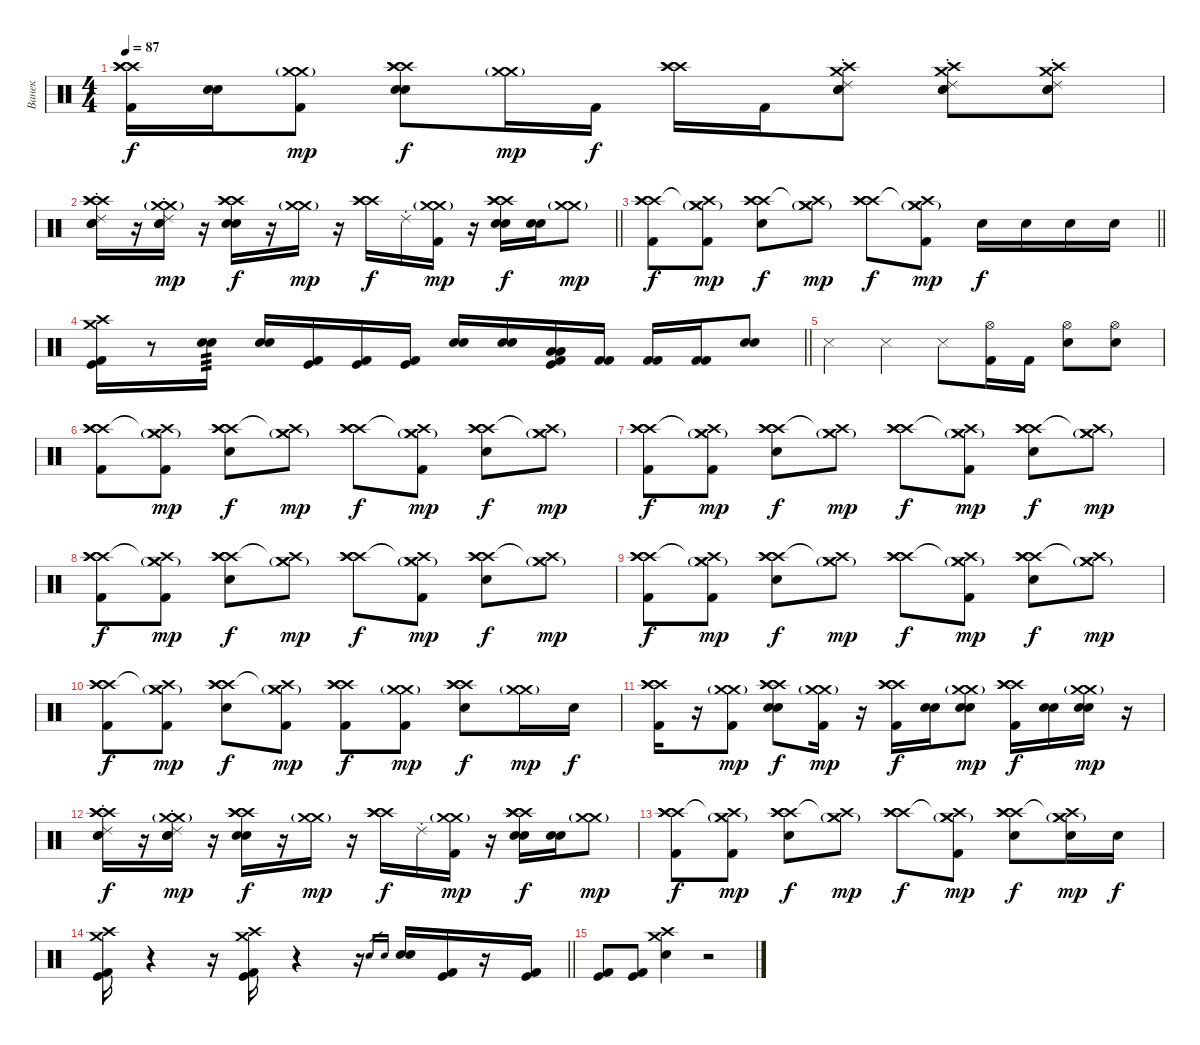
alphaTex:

\track ("Ванек" "Ванек") {instrument percussion}
\staff {score}
\articulation defaults
\ts (4 4)
\tempo 87
\clef neutral
\ks c
("Crash high (hit)" "Crash high (hit)" "Crash high (hit)" "Kick (hit) 2").16{dy f} ("Snare (hit) 2" "Electric Snare (hit)").16 ("Crash medium (hit)"{g} "Crash medium (hit)"{g} "Kick (hit) 2").8{dy mp} ("Crash high (hit)" "Crash high (hit)" "Crash high (hit)" "Snare (hit) 2" "Electric Snare (hit)").8{dy f} ("Crash medium (hit)"{g} "Crash medium (hit)"{g}).16{dy mp} "Kick (hit) 2".16{dy f} ("Crash high (hit)" "Crash high (hit)" "Crash high (hit)").16 "Kick (hit) 2".16 ("Crash high (hit)" "Crash medium (hit)" "Snare (hit) 2" "Electric Snare (hit)" "Ride (choke) 2").8 ("Crash high (hit)" "Crash medium (hit)" "Snare (hit) 2" "Electric Snare (hit)" "Ride (choke) 2").8 ("Crash high (hit)" "Crash medium (hit)" "Snare (hit) 2" "Electric Snare (hit)" "Ride (choke) 2").8 |
\barLineRight lightlight
("Crash high (hit)" "Crash high (hit)" "Crash high (hit)" "Snare (hit) 2" "Electric Snare (hit)" "Ride (choke) 2").16 r.16 ("Crash medium (hit)"{g} "Crash medium (hit)"{g} "Snare (hit) 2" "Electric Snare (hit)" "Ride (choke) 2").16{dy mp} r.16 ("Crash high (hit)" "Crash high (hit)" "Crash high (hit)" "Snare (hit) 2" "Snare (hit) 2").16{dy f} r.16 ("Crash medium (hit)"{g} "Crash medium (hit)"{g}).16{dy mp} r.16 ("Crash high (hit)" "Crash high (hit)" "Crash high (hit)").16{dy f} "Ride (choke) 2".16 ("Crash medium (hit)"{g} "Crash medium (hit)"{g} "Kick (hit) 2").16{dy mp} r.16 ("Crash high (hit)" "Crash high (hit)" "Crash high (hit)" "Snare (hit) 2" "Electric Snare (hit)").16{dy f} ("Snare (hit) 2" "Electric Snare (hit)").16 ("Crash medium (hit)"{g} "Crash medium (hit)"{g}).8{dy mp} |
\barLineRight lightlight
("Crash high (hit)" "Crash high (hit)" "Crash high (hit)" "Kick (hit) 2").8{dy f} ("Crash medium (hit)"{g} "Crash medium (hit)"{g} "Crash high (hit)"{t} "Kick (hit) 2").8{dy mp} ("Crash high (hit)" "Crash high (hit)" "Crash high (hit)" "Snare (hit) 2").8{dy f} ("Crash medium (hit)"{g} "Crash medium (hit)"{g} "Crash high (hit)"{t}).8{dy mp} ("Crash high (hit)" "Crash high (hit)" "Crash high (hit)").8{dy f} ("Crash medium (hit)"{g} "Crash medium (hit)"{g} "Crash high (hit)"{t} "Kick (hit) 2").8{dy mp} "Snare (hit) 2".16{dy f} "Snare (hit) 2".16 "Snare (hit) 2".16 "Snare (hit) 2".16 |
\barLineRight lightlight
("Crash medium (hit)" "Crash high (hit)" "Kick (hit) 2" "Kick (hit)").16 r.8 ("Snare (hit) 2" "Electric Snare (hit)").16{tp 3} ("Snare (hit) 2" "Electric Snare (hit)").16 ("Kick (hit) 2" "Kick (hit)").16 ("Kick (hit) 2" "Kick (hit)").16 ("Kick (hit) 2" "Kick (hit)").16 ("Snare (hit) 2" "Electric Snare (hit)").16 ("Snare (hit) 2" "Electric Snare (hit)").16 ("Low Floor Tom (hit)" "Low Floor Tom (hit)" "Kick (hit) 2" "Kick (hit)").16 ("Kick (hit) 2" "Kick (hit) 2").16 ("Kick (hit) 2" "Kick (hit) 2").16 ("Kick (hit) 2" "Kick (hit) 2").16 ("Snare (hit) 2" "Electric Snare (hit)").8 |
"Snare (side stick) 3".4 "Snare (side stick) 3".4 "Snare (side stick) 3".8 ("Hi-Hat (open)" "Kick (hit) 2").16 "Kick (hit) 2".16 ("Hi-Hat (open)" "Snare (hit) 2").8 ("Hi-Hat (open)" "Snare (hit) 2").8 |
("Crash high (hit)" "Crash high (hit)" "Crash high (hit)" "Kick (hit) 2").8 ("Crash medium (hit)"{g} "Crash medium (hit)"{g} "Crash high (hit)"{t} "Kick (hit) 2").8{dy mp} ("Crash high (hit)" "Crash high (hit)" "Crash high (hit)" "Snare (hit) 2").8{dy f} ("Crash medium (hit)"{g} "Crash medium (hit)"{g} "Crash high (hit)"{t}).8{dy mp} ("Crash high (hit)" "Crash high (hit)" "Crash high (hit)").8{dy f} ("Crash medium (hit)"{g} "Crash medium (hit)"{g} "Crash high (hit)"{t} "Kick (hit) 2").8{dy mp} ("Crash high (hit)" "Crash high (hit)" "Crash high (hit)" "Snare (hit) 2").8{dy f} ("Crash medium (hit)"{g} "Crash medium (hit)"{g} "Crash high (hit)"{t}).8{dy mp} |
("Crash high (hit)" "Crash high (hit)" "Crash high (hit)" "Kick (hit) 2").8{dy f} ("Crash medium (hit)"{g} "Crash medium (hit)"{g} "Crash high (hit)"{t} "Kick (hit) 2").8{dy mp} ("Crash high (hit)" "Crash high (hit)" "Crash high (hit)" "Snare (hit) 2").8{dy f} ("Crash medium (hit)"{g} "Crash medium (hit)"{g} "Crash high (hit)"{t}).8{dy mp} ("Crash high (hit)" "Crash high (hit)" "Crash high (hit)").8{dy f} ("Crash medium (hit)"{g} "Crash medium (hit)"{g} "Crash high (hit)"{t} "Kick (hit) 2").8{dy mp} ("Crash high (hit)" "Crash high (hit)" "Crash high (hit)" "Snare (hit) 2").8{dy f} ("Crash medium (hit)"{g} "Crash medium (hit)"{g} "Crash high (hit)"{t}).8{dy mp} |
("Crash high (hit)" "Crash high (hit)" "Crash high (hit)" "Kick (hit) 2").8{dy f} ("Crash medium (hit)"{g} "Crash medium (hit)"{g} "Crash high (hit)"{t} "Kick (hit) 2").8{dy mp} ("Crash high (hit)" "Crash high (hit)" "Crash high (hit)" "Snare (hit) 2").8{dy f} ("Crash medium (hit)"{g} "Crash medium (hit)"{g} "Crash high (hit)"{t}).8{dy mp} ("Crash high (hit)" "Crash high (hit)" "Crash high (hit)").8{dy f} ("Crash medium (hit)"{g} "Crash medium (hit)"{g} "Crash high (hit)"{t} "Kick (hit) 2").8{dy mp} ("Crash high (hit)" "Crash high (hit)" "Crash high (hit)" "Snare (hit) 2").8{dy f} ("Crash medium (hit)"{g} "Crash medium (hit)"{g} "Crash high (hit)"{t}).8{dy mp} |
("Crash high (hit)" "Crash high (hit)" "Crash high (hit)" "Kick (hit) 2").8{dy f} ("Crash medium (hit)"{g} "Crash medium (hit)"{g} "Crash high (hit)"{t} "Kick (hit) 2").8{dy mp} ("Crash high (hit)" "Crash high (hit)" "Crash high (hit)" "Snare (hit) 2").8{dy f} ("Crash medium (hit)"{g} "Crash medium (hit)"{g} "Crash high (hit)"{t}).8{dy mp} ("Crash high (hit)" "Crash high (hit)" "Crash high (hit)").8{dy f} ("Crash medium (hit)"{g} "Crash medium (hit)"{g} "Crash high (hit)"{t} "Kick (hit) 2").8{dy mp} ("Crash high (hit)" "Crash high (hit)" "Crash high (hit)" "Snare (hit) 2").8{dy f} ("Crash medium (hit)"{g} "Crash medium (hit)"{g} "Crash high (hit)"{t}).8{dy mp} |
("Crash high (hit)" "Crash high (hit)" "Crash high (hit)" "Kick (hit) 2").8{dy f} ("Crash medium (hit)"{g} "Crash medium (hit)"{g} "Crash high (hit)"{t} "Kick (hit) 2").8{dy mp} ("Crash high (hit)" "Crash high (hit)" "Crash high (hit)" "Snare (hit) 2").8{dy f} ("Crash medium (hit)"{g} "Crash medium (hit)"{g} "Crash high (hit)"{t} "Kick (hit) 2").8{dy mp} ("Crash high (hit)" "Crash high (hit)" "Crash high (hit)" "Kick (hit) 2").8{dy f} ("Crash medium (hit)"{g} "Crash medium (hit)"{g} "Kick (hit) 2").8{dy mp} ("Crash high (hit)" "Crash high (hit)" "Crash high (hit)" "Snare (hit) 2").8{dy f} ("Crash medium (hit)"{g} "Crash medium (hit)"{g}).16{dy mp} "Snare (hit) 2".16{dy f} |
("Crash high (hit)" "Crash high (hit)" "Crash high (hit)" "Kick (hit) 2").16 r.16 ("Crash medium (hit)"{g} "Crash medium (hit)"{g} "Kick (hit) 2").8{dy mp} ("Crash high (hit)" "Crash high (hit)" "Crash high (hit)" "Snare (hit) 2" "Electric Snare (hit)").8{dy f} ("Crash medium (hit)"{g} "Crash medium (hit)"{g} "Kick (hit) 2").16{dy mp} r.16 ("Crash high (hit)" "Crash high (hit)" "Crash high (hit)" "Kick (hit) 2").16{dy f} ("Snare (hit) 2" "Electric Snare (hit)").16 ("Crash medium (hit)"{g} "Crash medium (hit)"{g} "Snare (hit) 2" "Electric Snare (hit)").8{dy mp} ("Crash high (hit)" "Crash high (hit)" "Crash high (hit)" "Kick (hit) 2").16{dy f} ("Snare (hit) 2" "Electric Snare (hit)").16 ("Crash medium (hit)"{g} "Crash medium (hit)"{g} "Snare (hit) 2" "Electric Snare (hit)").16{dy mp} r.16 |
("Crash high (hit)" "Crash high (hit)" "Crash high (hit)" "Snare (hit) 2" "Electric Snare (hit)" "Ride (choke) 2").16{dy f} r.16 ("Crash medium (hit)"{g} "Crash medium (hit)"{g} "Snare (hit) 2" "Electric Snare (hit)" "Ride (choke) 2").16{dy mp} r.16 ("Crash high (hit)" "Crash high (hit)" "Crash high (hit)" "Snare (hit) 2" "Snare (hit) 2").16{dy f} r.16 ("Crash medium (hit)"{g} "Crash medium (hit)"{g}).16{dy mp} r.16 ("Crash high (hit)" "Crash high (hit)" "Crash high (hit)").16{dy f} "Ride (choke) 2".16 ("Crash medium (hit)"{g} "Crash medium (hit)"{g} "Kick (hit) 2").16{dy mp} r.16 ("Crash high (hit)" "Crash high (hit)" "Crash high (hit)" "Snare (hit) 2" "Electric Snare (hit)").16{dy f} ("Snare (hit) 2" "Electric Snare (hit)").16 ("Crash medium (hit)"{g} "Crash medium (hit)"{g}).8{dy mp} |
("Crash high (hit)" "Crash high (hit)" "Crash high (hit)" "Kick (hit) 2").8{dy f} ("Crash medium (hit)"{g} "Crash medium (hit)"{g} "Crash high (hit)"{t} "Kick (hit) 2").8{dy mp} ("Crash high (hit)" "Crash high (hit)" "Crash high (hit)" "Snare (hit) 2").8{dy f} ("Crash medium (hit)"{g} "Crash medium (hit)"{g} "Crash high (hit)"{t}).8{dy mp} ("Crash high (hit)" "Crash high (hit)" "Crash high (hit)").8{dy f} ("Crash medium (hit)"{g} "Crash medium (hit)"{g} "Crash high (hit)"{t} "Kick (hit) 2").8{dy mp} ("Crash high (hit)" "Crash high (hit)" "Crash high (hit)" "Snare (hit) 2").8{dy f} ("Crash medium (hit)"{g} "Crash medium (hit)"{g} "Crash high (hit)"{t} "Snare (hit) 2").16{dy mp} "Snare (hit) 2".16{dy f} |
\barLineRight lightlight
("Crash medium (hit)" "Crash high (hit)" "Kick (hit) 2" "Kick (hit)").16 r.4 r.16 ("Crash medium (hit)" "Crash high (hit)" "Kick (hit) 2" "Kick (hit)").16 r.4 r.16 "Electric Snare (hit)".16{gr} "Snare (hit) 2".16{gr} ("Electric Snare (hit)" "Snare (hit) 2").16 ("Kick (hit) 2" "Kick (hit)").16 r.16 ("Kick (hit) 2" "Kick (hit)").16 |
("Kick (hit) 2" "Kick (hit)").8 ("Kick (hit) 2" "Kick (hit)").8 ("Crash medium (hit)" "Crash high (hit)" "Snare (hit) 2").4 r.2
